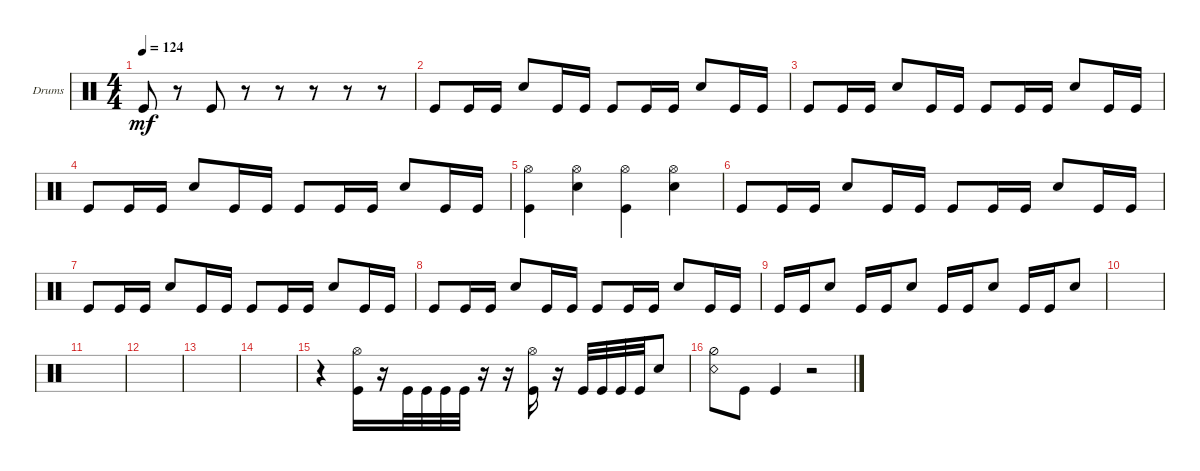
\defaultSystemsLayout 4
\bracketExtendMode groupsimilarinstruments
\firstSystemTrackNameOrientation horizontal
\otherSystemsTrackNameOrientation horizontal
\track ("Drumkit" "Drums") {solo instrument percussion}
\staff {score}
\articulation defaults
\ts (4 4)
\tempo 124
\clef neutral
\ks c "Kick (hit)".8{dy mf}
r.8 "Kick (hit)".8 r.8 r.8 r.8 r.8 r.8 |
"Kick (hit)".8 "Kick (hit)".16 "Kick (hit)".16 "Snare (hit) 2".8 "Kick (hit)".16 "Kick (hit)".16 "Kick (hit)".8 "Kick (hit)".16 "Kick (hit)".16 "Snare (hit) 2".8 "Kick (hit)".16 "Kick (hit)".16 |
"Kick (hit)".8 "Kick (hit)".16 "Kick (hit)".16 "Snare (hit) 2".8 "Kick (hit)".16 "Kick (hit)".16 "Kick (hit)".8 "Kick (hit)".16 "Kick (hit)".16 "Snare (hit) 2".8 "Kick (hit)".16 "Kick (hit)".16 |
"Kick (hit)".8 "Kick (hit)".16 "Kick (hit)".16 "Snare (hit) 2".8 "Kick (hit)".16 "Kick (hit)".16 "Kick (hit)".8 "Kick (hit)".16 "Kick (hit)".16 "Snare (hit) 2".8 "Kick (hit)".16 "Kick (hit)".16 |
("Kick (hit)" "Hi-Hat (open)").4 ("Snare (hit) 2" "Hi-Hat (open)").4 ("Kick (hit)" "Hi-Hat (open)").4 ("Snare (hit) 2" "Hi-Hat (open)").4 |
"Kick (hit)".8 "Kick (hit)".16 "Kick (hit)".16 "Snare (hit) 2".8 "Kick (hit)".16 "Kick (hit)".16 "Kick (hit)".8 "Kick (hit)".16 "Kick (hit)".16 "Snare (hit) 2".8 "Kick (hit)".16 "Kick (hit)".16 |
"Kick (hit)".8 "Kick (hit)".16 "Kick (hit)".16 "Snare (hit) 2".8 "Kick (hit)".16 "Kick (hit)".16 "Kick (hit)".8 "Kick (hit)".16 "Kick (hit)".16 "Snare (hit) 2".8 "Kick (hit)".16 "Kick (hit)".16 |
"Kick (hit)".8 "Kick (hit)".16 "Kick (hit)".16 "Snare (hit) 2".8 "Kick (hit)".16 "Kick (hit)".16 "Kick (hit)".8 "Kick (hit)".16 "Kick (hit)".16 "Snare (hit) 2".8 "Kick (hit)".16 "Kick (hit)".16 |
"Kick (hit)".16 "Kick (hit)".16 "Snare (hit) 2".8 "Kick (hit)".16 "Kick (hit)".16 "Snare (hit) 2".8 "Kick (hit)".16 "Kick (hit)".16 "Snare (hit) 2".8 "Kick (hit)".16 "Kick (hit)".16 "Snare (hit) 2".8 |
|
|
|
|
|
r.4 ("Hi-Hat (open)" "Kick (hit)").16 r.16 "Kick (hit)".32 "Kick (hit)".32 "Kick (hit)".32 "Kick (hit)".32 r.16 r.16 ("Hi-Hat (open)" "Kick (hit)").16 r.16 "Kick (hit)".32 "Kick (hit)".32 "Kick (hit)".32 "Kick (hit)".32 "Snare (hit) 2".8 |
("Snare (rim shot)" "Hi-Hat (half)").8 "Kick (hit)".8 "Kick (hit)".4 r.2
